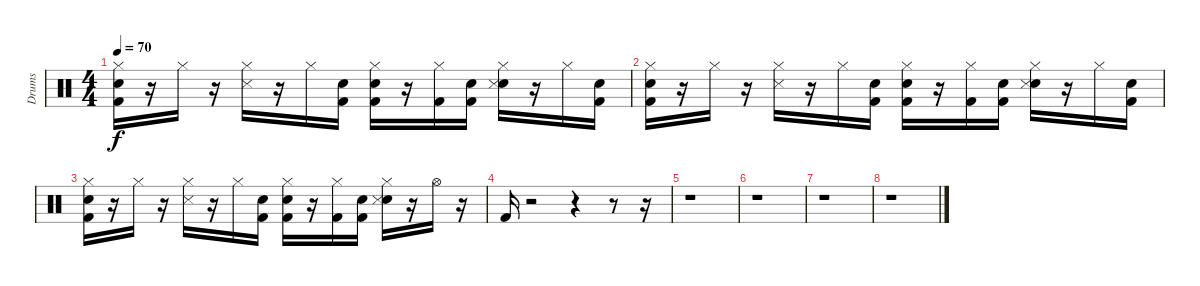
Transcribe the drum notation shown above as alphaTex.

\track ("Drums" "Drums") {instrument percussion}
\staff {score}
\articulation defaults
\ts (4 4)
\tempo 70
\clef neutral
\ks c
("Snare (hit)" "Kick (hit) 2" "Hi-Hat (closed)").16{dy f} r.16 "Hi-Hat (closed)".16 r.16 ("Snare (side stick) 3" "Hi-Hat (closed)").16 r.16 "Hi-Hat (closed)".16 ("Snare (hit)" "Kick (hit) 2").16 ("Snare (hit)" "Kick (hit) 2" "Hi-Hat (closed)").16 r.16 ("Kick (hit) 2" "Hi-Hat (closed)").16 ("Snare (hit)" "Kick (hit) 2").16 ("Snare (hit)" "Snare (side stick) 3" "Hi-Hat (closed)").16 r.16 "Hi-Hat (closed)".16 ("Snare (hit)" "Kick (hit) 2").16 |
("Snare (hit)" "Kick (hit) 2" "Hi-Hat (closed)").16 r.16 "Hi-Hat (closed)".16 r.16 ("Snare (side stick) 3" "Hi-Hat (closed)").16 r.16 "Hi-Hat (closed)".16 ("Snare (hit)" "Kick (hit) 2").16 ("Snare (hit)" "Kick (hit) 2" "Hi-Hat (closed)").16 r.16 ("Kick (hit) 2" "Hi-Hat (closed)").16 ("Snare (hit)" "Kick (hit) 2").16 ("Snare (hit)" "Snare (side stick) 3" "Hi-Hat (closed)").16 r.16 "Hi-Hat (closed)".16 ("Snare (hit)" "Kick (hit) 2").16 |
("Snare (hit)" "Kick (hit) 2" "Hi-Hat (closed)").16 r.16 "Hi-Hat (closed)".16 r.16 ("Snare (side stick) 3" "Hi-Hat (closed)").16 r.16 "Hi-Hat (closed)".16 ("Snare (hit)" "Kick (hit) 2").16 ("Snare (hit)" "Kick (hit) 2" "Hi-Hat (closed)").16 r.16 ("Kick (hit) 2" "Hi-Hat (closed)").16 ("Snare (hit)" "Kick (hit) 2").16 ("Snare (hit)" "Snare (side stick) 3" "Hi-Hat (closed)").16 r.16 "Hi-Hat (open)".16 r.16 |
"Kick (hit) 2".16 r.2 r.4 r.8 r.16 |
r.1 |
r.1 |
r.1 |
r.1
